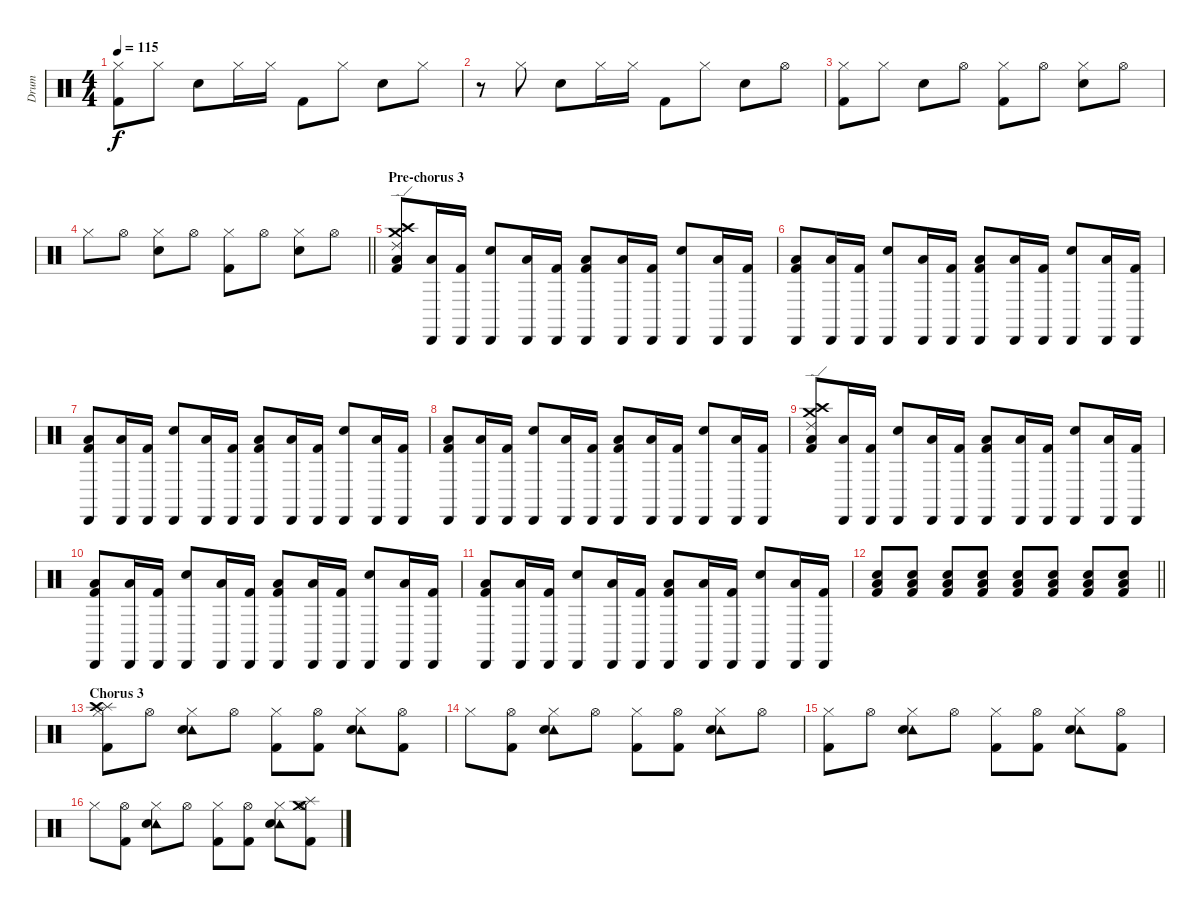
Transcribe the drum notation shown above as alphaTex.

\track ("Drum" "Drum") {instrument percussion}
\staff {score}
\articulation defaults
\ts (4 4)
\tempo 115
\clef neutral
\ks c
("Hi-Hat (closed)" "Kick (hit) 2").8{dy f} "Hi-Hat (closed)".8 "Electric Snare (hit)".8 "Hi-Hat (closed)".16 "Hi-Hat (closed)".16 "Kick (hit) 2".8 "Hi-Hat (closed)".8 "Electric Snare (hit)".8 "Hi-Hat (closed)".8 |
r.8 "Hi-Hat (closed)".8 "Electric Snare (hit)".8 "Hi-Hat (closed)".16 "Hi-Hat (closed)".16 "Kick (hit) 2".8 "Hi-Hat (closed)".8 "Electric Snare (hit)".8 "Hi-Hat (open)".8 |
("Hi-Hat (closed)" "Kick (hit) 2").8 "Hi-Hat (closed)".8 "Electric Snare (hit)".8 "Hi-Hat (open)".8 ("Hi-Hat (closed)" "Kick (hit) 2").8 "Hi-Hat (open)".8 ("Hi-Hat (closed)" "Electric Snare (hit)").8 "Hi-Hat (open)".8 |
\barLineRight lightlight "Hi-Hat (closed)".8 "Hi-Hat (open)".8
("Hi-Hat (closed)" "Electric Snare (hit)").8 "Hi-Hat (open)".8 ("Hi-Hat (closed)" "Kick (hit) 2").8 "Hi-Hat (open)".8 ("Hi-Hat (closed)" "Electric Snare (hit)").8 "Hi-Hat (open)".8 |
\section ("" "Pre-chorus 3")
("Crash medium (hit)" "Crash high (hit)" "Ride (edge) 2" "Low Tom (hit)" "Kick (hit) 2").8 ("Cabasa (hit)" "Low Tom (hit)").16 ("Cabasa (hit)" "Kick (hit) 2").16 ("Cabasa (hit)" "Electric Snare (hit)").8 ("Cabasa (hit)" "Low Tom (hit)").16 ("Cabasa (hit)" "Kick (hit) 2").16 ("Cabasa (hit)" "Low Tom (hit)" "Kick (hit) 2").8 ("Cabasa (hit)" "Low Tom (hit)").16 ("Cabasa (hit)" "Kick (hit) 2").16 ("Cabasa (hit)" "Electric Snare (hit)").8 ("Cabasa (hit)" "Low Tom (hit)").16 ("Cabasa (hit)" "Kick (hit) 2").16 |
("Cabasa (hit)" "Low Tom (hit)" "Kick (hit) 2").8 ("Cabasa (hit)" "Low Tom (hit)").16 ("Cabasa (hit)" "Kick (hit) 2").16 ("Cabasa (hit)" "Electric Snare (hit)").8 ("Cabasa (hit)" "Low Tom (hit)").16 ("Cabasa (hit)" "Kick (hit) 2").16 ("Cabasa (hit)" "Low Tom (hit)" "Kick (hit) 2").8 ("Cabasa (hit)" "Low Tom (hit)").16 ("Cabasa (hit)" "Kick (hit) 2").16 ("Cabasa (hit)" "Electric Snare (hit)").8 ("Cabasa (hit)" "Low Tom (hit)").16 ("Cabasa (hit)" "Kick (hit) 2").16 |
("Cabasa (hit)" "Low Tom (hit)" "Kick (hit) 2").8 ("Cabasa (hit)" "Low Tom (hit)").16 ("Cabasa (hit)" "Kick (hit) 2").16 ("Cabasa (hit)" "Electric Snare (hit)").8 ("Cabasa (hit)" "Low Tom (hit)").16 ("Cabasa (hit)" "Kick (hit) 2").16 ("Cabasa (hit)" "Low Tom (hit)" "Kick (hit) 2").8 ("Cabasa (hit)" "Low Tom (hit)").16 ("Cabasa (hit)" "Kick (hit) 2").16 ("Cabasa (hit)" "Electric Snare (hit)").8 ("Cabasa (hit)" "Low Tom (hit)").16 ("Cabasa (hit)" "Kick (hit) 2").16 |
("Cabasa (hit)" "Low Tom (hit)" "Kick (hit) 2").8 ("Cabasa (hit)" "Low Tom (hit)").16 ("Cabasa (hit)" "Kick (hit) 2").16 ("Cabasa (hit)" "Electric Snare (hit)").8 ("Cabasa (hit)" "Low Tom (hit)").16 ("Cabasa (hit)" "Kick (hit) 2").16 ("Cabasa (hit)" "Low Tom (hit)" "Kick (hit) 2").8 ("Cabasa (hit)" "Low Tom (hit)").16 ("Cabasa (hit)" "Kick (hit) 2").16 ("Cabasa (hit)" "Electric Snare (hit)").8 ("Cabasa (hit)" "Low Tom (hit)").16 ("Cabasa (hit)" "Kick (hit) 2").16 |
("Crash high (hit)" "Crash medium (hit)" "Ride (edge) 2" "Low Tom (hit)" "Kick (hit) 2").8 ("Cabasa (hit)" "Low Tom (hit)").16 ("Cabasa (hit)" "Kick (hit) 2").16 ("Cabasa (hit)" "Electric Snare (hit)").8 ("Cabasa (hit)" "Low Tom (hit)").16 ("Cabasa (hit)" "Kick (hit) 2").16 ("Cabasa (hit)" "Low Tom (hit)" "Kick (hit) 2").8 ("Cabasa (hit)" "Low Tom (hit)").16 ("Cabasa (hit)" "Kick (hit) 2").16 ("Cabasa (hit)" "Electric Snare (hit)").8 ("Cabasa (hit)" "Low Tom (hit)").16 ("Cabasa (hit)" "Kick (hit) 2").16 |
("Cabasa (hit)" "Low Tom (hit)" "Kick (hit) 2").8 ("Cabasa (hit)" "Low Tom (hit)").16 ("Cabasa (hit)" "Kick (hit) 2").16 ("Cabasa (hit)" "Electric Snare (hit)").8 ("Cabasa (hit)" "Low Tom (hit)").16 ("Cabasa (hit)" "Kick (hit) 2").16 ("Cabasa (hit)" "Low Tom (hit)" "Kick (hit) 2").8 ("Cabasa (hit)" "Low Tom (hit)").16 ("Cabasa (hit)" "Kick (hit) 2").16 ("Cabasa (hit)" "Electric Snare (hit)").8 ("Cabasa (hit)" "Low Tom (hit)").16 ("Cabasa (hit)" "Kick (hit) 2").16 |
("Cabasa (hit)" "Low Tom (hit)" "Kick (hit) 2").8 ("Cabasa (hit)" "Low Tom (hit)").16 ("Cabasa (hit)" "Kick (hit) 2").16 ("Cabasa (hit)" "Electric Snare (hit)").8 ("Cabasa (hit)" "Low Tom (hit)").16 ("Cabasa (hit)" "Kick (hit) 2").16 ("Cabasa (hit)" "Low Tom (hit)" "Kick (hit) 2").8 ("Cabasa (hit)" "Low Tom (hit)").16 ("Cabasa (hit)" "Kick (hit) 2").16 ("Cabasa (hit)" "Electric Snare (hit)").8 ("Cabasa (hit)" "Low Tom (hit)").16 ("Cabasa (hit)" "Kick (hit) 2").16 |
\barLineRight lightlight
("Low Tom (hit)" "Electric Snare (hit)" "Kick (hit) 2").8 ("Low Tom (hit)" "Electric Snare (hit)" "Kick (hit) 2").8 ("Low Tom (hit)" "Electric Snare (hit)" "Kick (hit) 2").8 ("Low Tom (hit)" "Electric Snare (hit)" "Kick (hit) 2").8 ("Low Tom (hit)" "Electric Snare (hit)" "Kick (hit) 2").8 ("Low Tom (hit)" "Electric Snare (hit)" "Kick (hit) 2").8 ("Low Tom (hit)" "Electric Snare (hit)" "Kick (hit) 2").8 ("Low Tom (hit)" "Electric Snare (hit)" "Kick (hit) 2").8 |
\section ("" "Chorus 3")
("Hi-Hat (closed)" "Splash (hit)" "Crash high (hit)" "Kick (hit) 2").8 "Hi-Hat (open)".8 ("Hi-Hat (closed)" "Tambourine (hit)" "Electric Snare (hit)").8 "Hi-Hat (open)".8 ("Hi-Hat (closed)" "Kick (hit) 2").8 ("Hi-Hat (open)" "Kick (hit) 2").8 ("Hi-Hat (closed)" "Tambourine (hit)" "Electric Snare (hit)").8 ("Hi-Hat (open)" "Kick (hit) 2").8 |
"Hi-Hat (closed)".8 ("Hi-Hat (open)" "Kick (hit) 2").8 ("Hi-Hat (closed)" "Tambourine (hit)" "Electric Snare (hit)").8 "Hi-Hat (open)".8 ("Hi-Hat (closed)" "Kick (hit) 2").8 ("Hi-Hat (open)" "Kick (hit) 2").8 ("Hi-Hat (closed)" "Tambourine (hit)" "Electric Snare (hit)").8 "Hi-Hat (open)".8 |
("Hi-Hat (closed)" "Kick (hit) 2").8 "Hi-Hat (open)".8 ("Hi-Hat (closed)" "Tambourine (hit)" "Electric Snare (hit)").8 "Hi-Hat (open)".8 ("Hi-Hat (closed)" "Kick (hit) 2").8 ("Hi-Hat (open)" "Kick (hit) 2").8 ("Hi-Hat (closed)" "Tambourine (hit)" "Electric Snare (hit)").8 ("Hi-Hat (open)" "Kick (hit) 2").8 |
"Hi-Hat (closed)".8 ("Hi-Hat (open)" "Kick (hit) 2").8 ("Hi-Hat (closed)" "Tambourine (hit)" "Electric Snare (hit)").8 "Hi-Hat (open)".8 ("Hi-Hat (closed)" "Kick (hit) 2").8 ("Hi-Hat (open)" "Kick (hit) 2").8 ("Hi-Hat (closed)" "Tambourine (hit)" "Electric Snare (hit)").8 ("Hi-Hat (open)" "Crash medium (hit)" "Splash (hit)" "Kick (hit) 2").8
